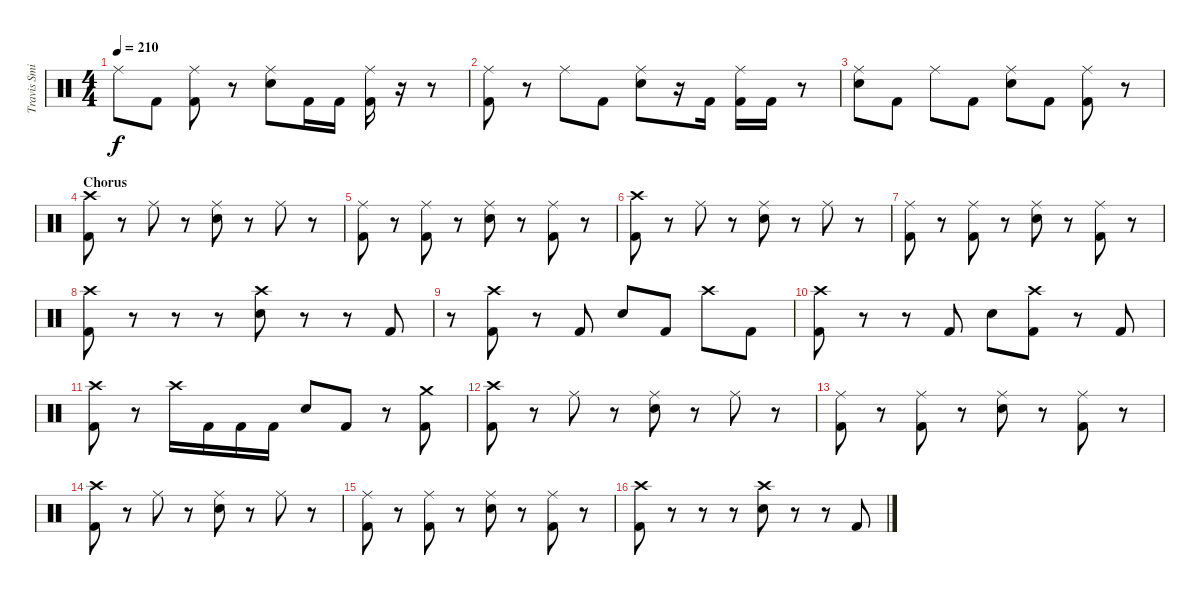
\track ("Travis Smith" "Travis Smi") {instrument percussion}
\staff {score}
\articulation defaults
\ts (4 4)
\tempo 210
\clef neutral
\ks c "Ride (middle)".8{dy f} "Kick (hit) 2".8
("Ride (middle)" "Kick (hit) 2").8 r.8 ("Ride (middle)" "Electric Snare (hit)").8 "Kick (hit) 2".16 "Kick (hit) 2".16 ("Ride (middle)" "Kick (hit) 2").16 r.16 r.8 |
("Ride (middle)" "Kick (hit) 2").8 r.8 "Ride (middle)".8 "Kick (hit) 2".8 ("Ride (middle)" "Electric Snare (hit)").8 r.16 "Kick (hit) 2".16 ("Ride (middle)" "Kick (hit) 2").16 "Kick (hit) 2".16 r.8 |
("Ride (middle)" "Electric Snare (hit)").8 "Kick (hit) 2".8 "Ride (middle)".8 "Kick (hit) 2".8 ("Ride (middle)" "Electric Snare (hit)").8 "Kick (hit) 2".8 ("Ride (middle)" "Kick (hit) 2").8 r.8 |
\section ("" "Chorus")
("Crash high (hit)" "Kick (hit) 2").8 r.8 "Ride (middle)".8 r.8 ("Ride (middle)" "Electric Snare (hit)").8 r.8 "Ride (middle)".8 r.8 |
("Ride (middle)" "Kick (hit) 2").8 r.8 ("Ride (middle)" "Kick (hit) 2").8 r.8 ("Ride (middle)" "Electric Snare (hit)").8 r.8 ("Ride (middle)" "Kick (hit) 2").8 r.8 |
("Crash high (hit)" "Kick (hit) 2").8 r.8 "Ride (middle)".8 r.8 ("Ride (middle)" "Electric Snare (hit)").8 r.8 "Ride (middle)".8 r.8 |
("Ride (middle)" "Kick (hit) 2").8 r.8 ("Ride (middle)" "Kick (hit) 2").8 r.8 ("Ride (middle)" "Electric Snare (hit)").8 r.8 ("Ride (middle)" "Kick (hit) 2").8 r.8 |
("Crash high (hit)" "Kick (hit) 2").8 r.8 r.8 r.8 ("Crash high (hit)" "Electric Snare (hit)").8 r.8 r.8 "Kick (hit) 2".8 |
r.8 ("Crash high (hit)" "Kick (hit) 2").8 r.8 "Kick (hit) 2".8 "Electric Snare (hit)".8 "Kick (hit) 2".8 "Crash high (hit)".8 "Kick (hit) 2".8 |
("Crash high (hit)" "Kick (hit) 2").8 r.8 r.8 "Kick (hit) 2".8 "Electric Snare (hit)".8 ("Crash high (hit)" "Kick (hit) 2").8 r.8 "Kick (hit) 2".8 |
("Crash high (hit)" "Kick (hit) 2").8 r.8 "Crash high (hit)".16 "Kick (hit) 2".16 "Kick (hit) 2".16 "Kick (hit) 2".16 "Electric Snare (hit)".8 "Kick (hit) 2".8 r.8 ("Crash medium (hit)" "Kick (hit) 2").8 |
("Crash high (hit)" "Kick (hit) 2").8 r.8 "Ride (middle)".8 r.8 ("Ride (middle)" "Electric Snare (hit)").8 r.8 "Ride (middle)".8 r.8 |
("Ride (middle)" "Kick (hit) 2").8 r.8 ("Ride (middle)" "Kick (hit) 2").8 r.8 ("Ride (middle)" "Electric Snare (hit)").8 r.8 ("Ride (middle)" "Kick (hit) 2").8 r.8 |
("Crash high (hit)" "Kick (hit) 2").8 r.8 "Ride (middle)".8 r.8 ("Ride (middle)" "Electric Snare (hit)").8 r.8 "Ride (middle)".8 r.8 |
("Ride (middle)" "Kick (hit) 2").8 r.8 ("Ride (middle)" "Kick (hit) 2").8 r.8 ("Ride (middle)" "Electric Snare (hit)").8 r.8 ("Ride (middle)" "Kick (hit) 2").8 r.8 |
("Crash high (hit)" "Kick (hit) 2").8 r.8 r.8 r.8 ("Crash high (hit)" "Electric Snare (hit)").8 r.8 r.8 "Kick (hit) 2".8
